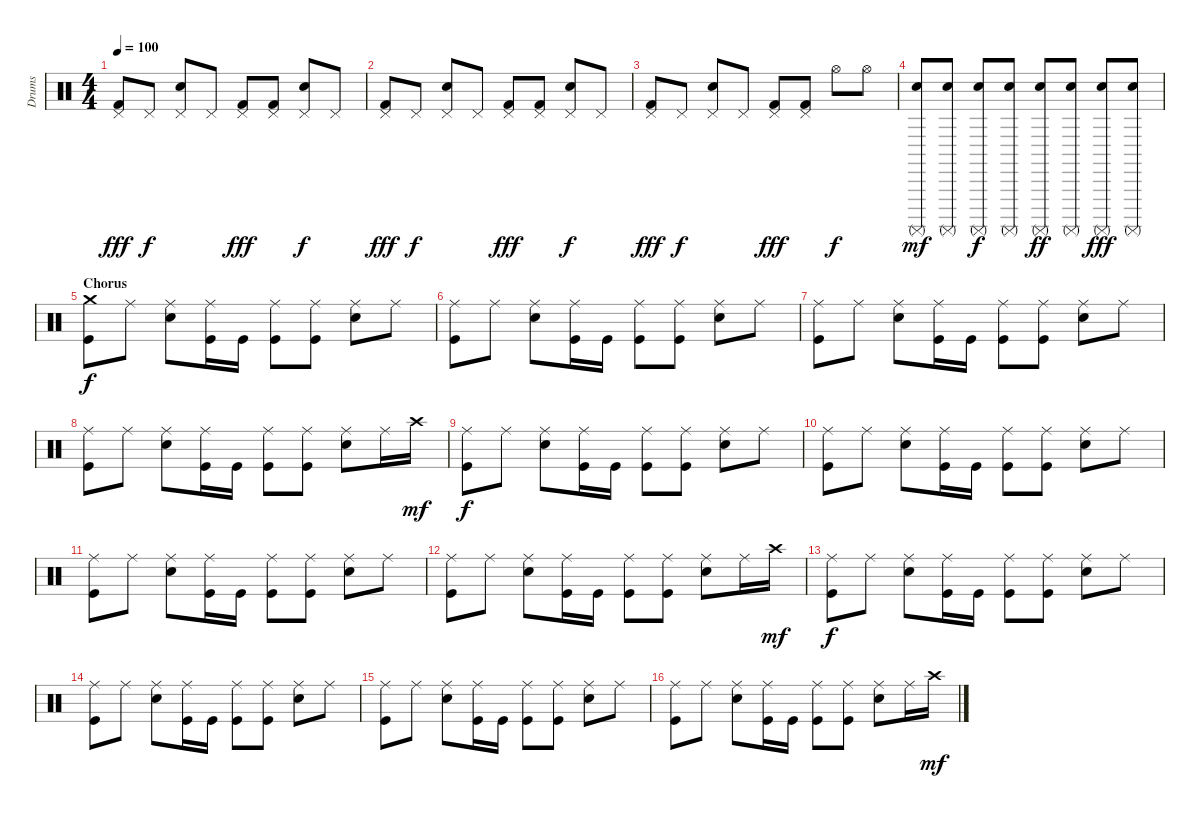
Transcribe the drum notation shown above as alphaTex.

\track ("Drums" "Drums") {instrument percussion}
\staff {score}
\articulation defaults
\ts (4 4)
\tempo 100
\clef neutral
\ks c
("Kick (hit) 2" "Pedal Hi-Hat (hit)").8{dy fff} "Pedal Hi-Hat (hit)".8{dy f} ("Electric Snare (hit)" "Pedal Hi-Hat (hit)").8 "Pedal Hi-Hat (hit)".8 ("Kick (hit) 2" "Pedal Hi-Hat (hit)").8{dy fff} ("Kick (hit) 2" "Pedal Hi-Hat (hit)").8 ("Electric Snare (hit)" "Pedal Hi-Hat (hit)").8{dy f} "Pedal Hi-Hat (hit)".8 |
("Kick (hit) 2" "Pedal Hi-Hat (hit)").8{dy fff} "Pedal Hi-Hat (hit)".8{dy f} ("Electric Snare (hit)" "Pedal Hi-Hat (hit)").8 "Pedal Hi-Hat (hit)".8 ("Kick (hit) 2" "Pedal Hi-Hat (hit)").8{dy fff} ("Kick (hit) 2" "Pedal Hi-Hat (hit)").8 ("Electric Snare (hit)" "Pedal Hi-Hat (hit)").8{dy f} "Pedal Hi-Hat (hit)".8 |
("Kick (hit) 2" "Pedal Hi-Hat (hit)").8{dy fff} "Pedal Hi-Hat (hit)".8{dy f} ("Electric Snare (hit)" "Pedal Hi-Hat (hit)").8 "Pedal Hi-Hat (hit)".8 ("Kick (hit) 2" "Pedal Hi-Hat (hit)").8{dy fff} ("Kick (hit) 2" "Pedal Hi-Hat (hit)").8 "Hi-Hat (open)".8{dy f} "Hi-Hat (open)".8 |
("Electric Snare (hit)" "Surdo (mute)").8{dy mf} ("Electric Snare (hit)" "Surdo (mute)").8 ("Electric Snare (hit)" "Surdo (mute)").8{dy f} ("Electric Snare (hit)" "Surdo (mute)").8 ("Electric Snare (hit)" "Surdo (mute)").8{dy ff} ("Electric Snare (hit)" "Surdo (mute)").8 ("Electric Snare (hit)" "Surdo (mute)").8{dy fff} ("Electric Snare (hit)" "Surdo (mute)").8 |
\section ("" "Chorus")
("Kick (hit)" "Crash medium (hit)").8{dy f} "Ride (middle)".8 ("Electric Snare (hit)" "Ride (middle)").8 ("Kick (hit)" "Ride (middle)").16 "Kick (hit)".16 ("Kick (hit)" "Ride (middle)").8 ("Kick (hit)" "Ride (middle)").8 ("Electric Snare (hit)" "Ride (middle)").8 "Ride (middle)".8 |
("Kick (hit)" "Ride (middle)").8 "Ride (middle)".8 ("Electric Snare (hit)" "Ride (middle)").8 ("Kick (hit)" "Ride (middle)").16 "Kick (hit)".16 ("Kick (hit)" "Ride (middle)").8 ("Kick (hit)" "Ride (middle)").8 ("Electric Snare (hit)" "Ride (middle)").8 "Ride (middle)".8 |
("Kick (hit)" "Ride (middle)").8 "Ride (middle)".8 ("Electric Snare (hit)" "Ride (middle)").8 ("Kick (hit)" "Ride (middle)").16 "Kick (hit)".16 ("Kick (hit)" "Ride (middle)").8 ("Kick (hit)" "Ride (middle)").8 ("Electric Snare (hit)" "Ride (middle)").8 "Ride (middle)".8 |
("Kick (hit)" "Ride (middle)").8 "Ride (middle)".8 ("Electric Snare (hit)" "Ride (middle)").8 ("Kick (hit)" "Ride (middle)").16 "Kick (hit)".16 ("Kick (hit)" "Ride (middle)").8 ("Kick (hit)" "Ride (middle)").8 ("Electric Snare (hit)" "Ride (middle)").8 "Ride (middle)".16 "Crash high (hit)".16{dy mf} |
("Kick (hit)" "Ride (middle)").8{dy f} "Ride (middle)".8 ("Electric Snare (hit)" "Ride (middle)").8 ("Kick (hit)" "Ride (middle)").16 "Kick (hit)".16 ("Kick (hit)" "Ride (middle)").8 ("Kick (hit)" "Ride (middle)").8 ("Electric Snare (hit)" "Ride (middle)").8 "Ride (middle)".8 |
("Kick (hit)" "Ride (middle)").8 "Ride (middle)".8 ("Electric Snare (hit)" "Ride (middle)").8 ("Kick (hit)" "Ride (middle)").16 "Kick (hit)".16 ("Kick (hit)" "Ride (middle)").8 ("Kick (hit)" "Ride (middle)").8 ("Electric Snare (hit)" "Ride (middle)").8 "Ride (middle)".8 |
("Kick (hit)" "Ride (middle)").8 "Ride (middle)".8 ("Electric Snare (hit)" "Ride (middle)").8 ("Kick (hit)" "Ride (middle)").16 "Kick (hit)".16 ("Kick (hit)" "Ride (middle)").8 ("Kick (hit)" "Ride (middle)").8 ("Electric Snare (hit)" "Ride (middle)").8 "Ride (middle)".8 |
("Kick (hit)" "Ride (middle)").8 "Ride (middle)".8 ("Electric Snare (hit)" "Ride (middle)").8 ("Kick (hit)" "Ride (middle)").16 "Kick (hit)".16 ("Kick (hit)" "Ride (middle)").8 ("Kick (hit)" "Ride (middle)").8 ("Electric Snare (hit)" "Ride (middle)").8 "Ride (middle)".16 "Crash high (hit)".16{dy mf} |
("Kick (hit)" "Ride (middle)").8{dy f} "Ride (middle)".8 ("Electric Snare (hit)" "Ride (middle)").8 ("Kick (hit)" "Ride (middle)").16 "Kick (hit)".16 ("Kick (hit)" "Ride (middle)").8 ("Kick (hit)" "Ride (middle)").8 ("Electric Snare (hit)" "Ride (middle)").8 "Ride (middle)".8 |
("Kick (hit)" "Ride (middle)").8 "Ride (middle)".8 ("Electric Snare (hit)" "Ride (middle)").8 ("Kick (hit)" "Ride (middle)").16 "Kick (hit)".16 ("Kick (hit)" "Ride (middle)").8 ("Kick (hit)" "Ride (middle)").8 ("Electric Snare (hit)" "Ride (middle)").8 "Ride (middle)".8 |
("Kick (hit)" "Ride (middle)").8 "Ride (middle)".8 ("Electric Snare (hit)" "Ride (middle)").8 ("Kick (hit)" "Ride (middle)").16 "Kick (hit)".16 ("Kick (hit)" "Ride (middle)").8 ("Kick (hit)" "Ride (middle)").8 ("Electric Snare (hit)" "Ride (middle)").8 "Ride (middle)".8 |
("Kick (hit)" "Ride (middle)").8 "Ride (middle)".8 ("Electric Snare (hit)" "Ride (middle)").8 ("Kick (hit)" "Ride (middle)").16 "Kick (hit)".16 ("Kick (hit)" "Ride (middle)").8 ("Kick (hit)" "Ride (middle)").8 ("Electric Snare (hit)" "Ride (middle)").8 "Ride (middle)".16 "Crash high (hit)".16{dy mf}
